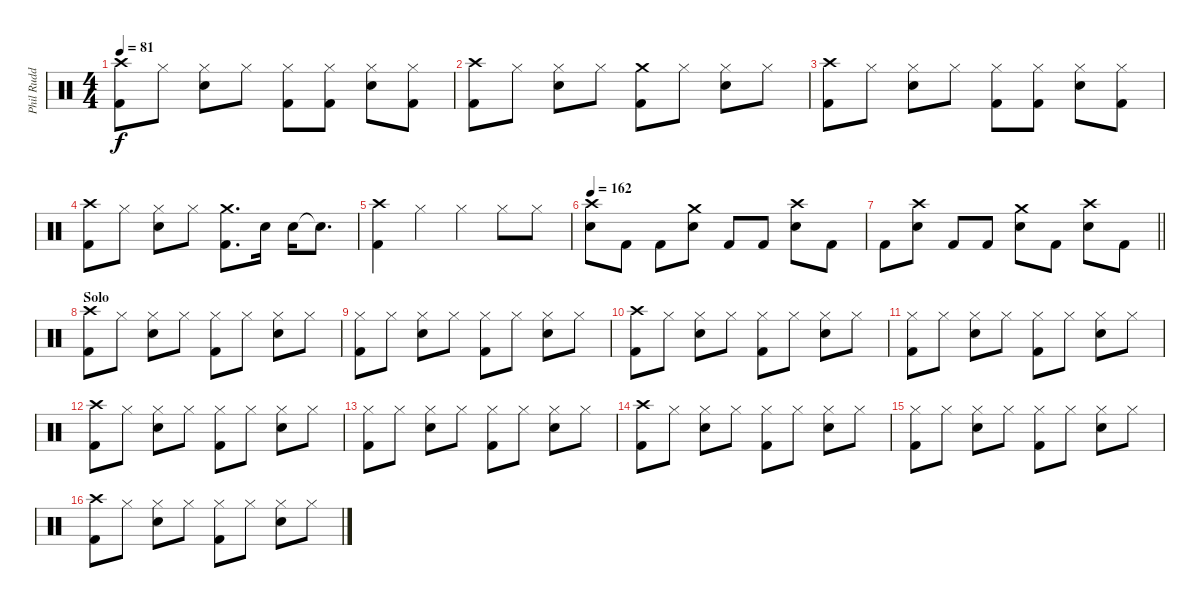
\track ("Phil Rudd" "Phil Rudd") {instrument percussion}
\staff {score}
\articulation defaults
\ts (4 4)
\tempo 81
\clef neutral
\ks c
("Crash high (hit)" "Kick (hit) 2").8{dy f} "Hi-Hat (closed)".8 ("Hi-Hat (closed)" "Snare (hit) 2").8 "Hi-Hat (closed)".8 ("Hi-Hat (closed)" "Kick (hit) 2").8 ("Hi-Hat (closed)" "Kick (hit) 2").8 ("Hi-Hat (closed)" "Snare (hit) 2").8 ("Hi-Hat (closed)" "Kick (hit) 2").8 |
("Crash high (hit)" "Kick (hit) 2").8 "Hi-Hat (closed)".8 ("Hi-Hat (closed)" "Snare (hit) 2").8 "Hi-Hat (closed)".8 ("Crash medium (hit)" "Kick (hit) 2").8 "Hi-Hat (closed)".8 ("Hi-Hat (closed)" "Snare (hit) 2").8 "Hi-Hat (closed)".8 |
("Crash high (hit)" "Kick (hit) 2").8 "Hi-Hat (closed)".8 ("Hi-Hat (closed)" "Snare (hit) 2").8 "Hi-Hat (closed)".8 ("Hi-Hat (closed)" "Kick (hit) 2").8 ("Hi-Hat (closed)" "Kick (hit) 2").8 ("Hi-Hat (closed)" "Snare (hit) 2").8 ("Hi-Hat (closed)" "Kick (hit) 2").8 |
("Crash high (hit)" "Kick (hit) 2").8 "Hi-Hat (closed)".8 ("Hi-Hat (closed)" "Snare (hit) 2").8 "Hi-Hat (closed)".8 ("Crash medium (hit)" "Kick (hit) 2").8{d} "Snare (hit) 2".16 "Snare (hit) 2".16 "Snare (hit)"{t}.8{d} |
("Crash high (hit)" "Kick (hit) 2").4 "Hi-Hat (closed)".4 "Hi-Hat (closed)".4 "Hi-Hat (closed)".8 "Hi-Hat (closed)".8 |
\tempo 162
("Crash high (hit)" "Snare (hit) 2").8 "Kick (hit) 2".8 "Kick (hit) 2".8 ("Crash medium (hit)" "Snare (hit) 2").8 "Kick (hit) 2".8 "Kick (hit) 2".8 ("Crash high (hit)" "Snare (hit) 2").8 "Kick (hit) 2".8 |
\barLineRight lightlight "Kick (hit) 2".8
("Crash high (hit)" "Snare (hit) 2").8 "Kick (hit) 2".8 "Kick (hit) 2".8 ("Crash medium (hit)" "Snare (hit) 2").8 "Kick (hit) 2".8 ("Crash high (hit)" "Snare (hit) 2").8 "Kick (hit) 2".8 |
\section ("" "Solo")
("Crash high (hit)" "Kick (hit) 2").8 "Hi-Hat (closed)".8 ("Hi-Hat (closed)" "Snare (hit) 2").8 "Hi-Hat (closed)".8 ("Hi-Hat (closed)" "Kick (hit) 2").8 "Hi-Hat (closed)".8 ("Hi-Hat (closed)" "Snare (hit) 2").8 "Hi-Hat (closed)".8 |
("Hi-Hat (closed)" "Kick (hit) 2").8 "Hi-Hat (closed)".8 ("Hi-Hat (closed)" "Snare (hit) 2").8 "Hi-Hat (closed)".8 ("Hi-Hat (closed)" "Kick (hit) 2").8 "Hi-Hat (closed)".8 ("Hi-Hat (closed)" "Snare (hit) 2").8 "Hi-Hat (closed)".8 |
("Crash high (hit)" "Kick (hit) 2").8 "Hi-Hat (closed)".8 ("Hi-Hat (closed)" "Snare (hit) 2").8 "Hi-Hat (closed)".8 ("Hi-Hat (closed)" "Kick (hit) 2").8 "Hi-Hat (closed)".8 ("Hi-Hat (closed)" "Snare (hit) 2").8 "Hi-Hat (closed)".8 |
("Hi-Hat (closed)" "Kick (hit) 2").8 "Hi-Hat (closed)".8 ("Hi-Hat (closed)" "Snare (hit) 2").8 "Hi-Hat (closed)".8 ("Hi-Hat (closed)" "Kick (hit) 2").8 "Hi-Hat (closed)".8 ("Hi-Hat (closed)" "Snare (hit) 2").8 "Hi-Hat (closed)".8 |
("Crash high (hit)" "Kick (hit) 2").8 "Hi-Hat (closed)".8 ("Hi-Hat (closed)" "Snare (hit) 2").8 "Hi-Hat (closed)".8 ("Hi-Hat (closed)" "Kick (hit) 2").8 "Hi-Hat (closed)".8 ("Hi-Hat (closed)" "Snare (hit) 2").8 "Hi-Hat (closed)".8 |
("Hi-Hat (closed)" "Kick (hit) 2").8 "Hi-Hat (closed)".8 ("Hi-Hat (closed)" "Snare (hit) 2").8 "Hi-Hat (closed)".8 ("Hi-Hat (closed)" "Kick (hit) 2").8 "Hi-Hat (closed)".8 ("Hi-Hat (closed)" "Snare (hit) 2").8 "Hi-Hat (closed)".8 |
("Crash high (hit)" "Kick (hit) 2").8 "Hi-Hat (closed)".8 ("Hi-Hat (closed)" "Snare (hit) 2").8 "Hi-Hat (closed)".8 ("Hi-Hat (closed)" "Kick (hit) 2").8 "Hi-Hat (closed)".8 ("Hi-Hat (closed)" "Snare (hit) 2").8 "Hi-Hat (closed)".8 |
("Hi-Hat (closed)" "Kick (hit) 2").8 "Hi-Hat (closed)".8 ("Hi-Hat (closed)" "Snare (hit) 2").8 "Hi-Hat (closed)".8 ("Hi-Hat (closed)" "Kick (hit) 2").8 "Hi-Hat (closed)".8 ("Hi-Hat (closed)" "Snare (hit) 2").8 "Hi-Hat (closed)".8 |
("Crash high (hit)" "Kick (hit) 2").8 "Hi-Hat (closed)".8 ("Hi-Hat (closed)" "Snare (hit) 2").8 "Hi-Hat (closed)".8 ("Hi-Hat (closed)" "Kick (hit) 2").8 "Hi-Hat (closed)".8 ("Hi-Hat (closed)" "Snare (hit) 2").8 "Hi-Hat (closed)".8
